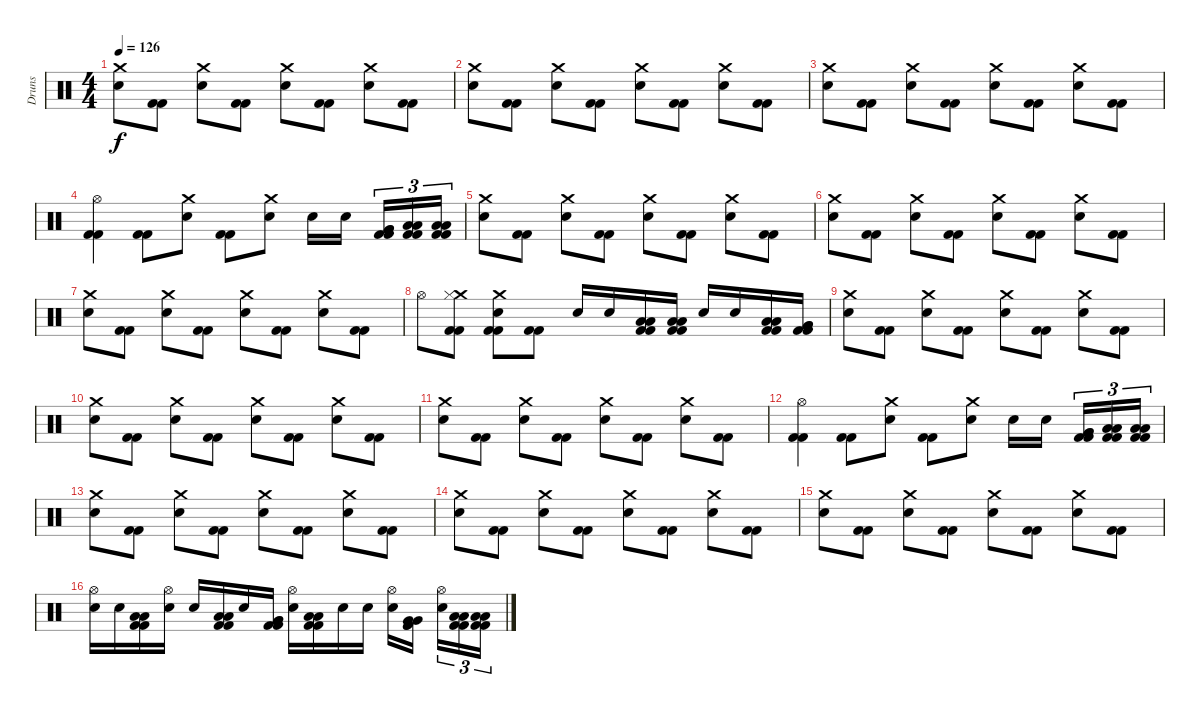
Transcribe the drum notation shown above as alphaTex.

\track ("Druns" "Druns") {instrument percussion}
\staff {score}
\articulation defaults
\ts (4 4)
\section ("" "")
\tempo 126
\clef neutral
\ks c
("Crash medium (hit)" "Electric Snare (hit)").8{dy f} ("Kick (hit) 2" "Kick (hit) 2").8 ("Crash medium (hit)" "Electric Snare (hit)").8 ("Kick (hit) 2" "Kick (hit) 2").8 ("Crash medium (hit)" "Electric Snare (hit)").8 ("Kick (hit) 2" "Kick (hit) 2").8 ("Crash medium (hit)" "Electric Snare (hit)").8 ("Kick (hit) 2" "Kick (hit) 2").8 |
("Crash medium (hit)" "Electric Snare (hit)").8 ("Kick (hit) 2" "Kick (hit) 2").8 ("Crash medium (hit)" "Electric Snare (hit)").8 ("Kick (hit) 2" "Kick (hit) 2").8 ("Crash medium (hit)" "Electric Snare (hit)").8 ("Kick (hit) 2" "Kick (hit) 2").8 ("Crash medium (hit)" "Electric Snare (hit)").8 ("Kick (hit) 2" "Kick (hit) 2").8 |
("Crash medium (hit)" "Electric Snare (hit)").8 ("Kick (hit) 2" "Kick (hit) 2").8 ("Crash medium (hit)" "Electric Snare (hit)").8 ("Kick (hit) 2" "Kick (hit) 2").8 ("Crash medium (hit)" "Electric Snare (hit)").8 ("Kick (hit) 2" "Kick (hit) 2").8 ("Crash medium (hit)" "Electric Snare (hit)").8 ("Kick (hit) 2" "Kick (hit) 2").8 |
("Hi-Hat (open)" "Kick (hit) 2" "Kick (hit) 2").4 ("Kick (hit) 2" "Kick (hit) 2").8 ("Crash medium (hit)" "Electric Snare (hit)").8 ("Kick (hit) 2" "Kick (hit) 2").8 ("Crash medium (hit)" "Electric Snare (hit)").8 "Electric Snare (hit)".16 "Electric Snare (hit)".16{beam splitsecondary} ("Very Low Tom (hit)" "Very Low Tom (hit)" "Kick (hit) 2" "Kick (hit) 2").16{tu (3 2)} ("Low Floor Tom (hit)" "Low Floor Tom (hit)" "Kick (hit) 2" "Kick (hit) 2").16{tu (3 2)} ("Low Floor Tom (hit)" "Low Floor Tom (hit)" "Kick (hit) 2" "Kick (hit) 2").16{tu (3 2)} |
("Crash medium (hit)" "Electric Snare (hit)").8 ("Kick (hit) 2" "Kick (hit) 2").8 ("Crash medium (hit)" "Electric Snare (hit)").8 ("Kick (hit) 2" "Kick (hit) 2").8 ("Crash medium (hit)" "Electric Snare (hit)").8 ("Kick (hit) 2" "Kick (hit) 2").8 ("Crash medium (hit)" "Electric Snare (hit)").8 ("Kick (hit) 2" "Kick (hit) 2").8 |
("Crash medium (hit)" "Electric Snare (hit)").8 ("Kick (hit) 2" "Kick (hit) 2").8 ("Crash medium (hit)" "Electric Snare (hit)").8 ("Kick (hit) 2" "Kick (hit) 2").8 ("Crash medium (hit)" "Electric Snare (hit)").8 ("Kick (hit) 2" "Kick (hit) 2").8 ("Crash medium (hit)" "Electric Snare (hit)").8 ("Kick (hit) 2" "Kick (hit) 2").8 |
("Crash medium (hit)" "Electric Snare (hit)").8 ("Kick (hit) 2" "Kick (hit) 2").8 ("Crash medium (hit)" "Electric Snare (hit)").8 ("Kick (hit) 2" "Kick (hit) 2").8 ("Crash medium (hit)" "Electric Snare (hit)").8 ("Kick (hit) 2" "Kick (hit) 2").8 ("Crash medium (hit)" "Electric Snare (hit)").8 ("Kick (hit) 2" "Kick (hit) 2").8 |
"Hi-Hat (open)".8 ("Crash medium (hit)" "Hi-Hat (closed)" "Kick (hit) 2" "Kick (hit) 2").8 ("Crash medium (hit)" "Electric Snare (hit)" "Kick (hit) 2" "Kick (hit) 2").8 ("Kick (hit) 2" "Kick (hit) 2").8 "Electric Snare (hit)".16 "Electric Snare (hit)".16 ("Low Tom (hit)" "Low Tom (hit)" "Kick (hit) 2" "Kick (hit) 2").16 ("Low Tom (hit)" "Low Tom (hit)" "Kick (hit) 2" "Kick (hit) 2").16 "Electric Snare (hit)".16 "Electric Snare (hit)".16 ("Low Tom (hit)" "Low Tom (hit)" "Kick (hit) 2" "Kick (hit) 2").16 ("Very Low Tom (hit)" "Very Low Tom (hit)" "Kick (hit) 2" "Kick (hit) 2").16 |
("Crash medium (hit)" "Electric Snare (hit)").8 ("Kick (hit) 2" "Kick (hit) 2").8 ("Crash medium (hit)" "Electric Snare (hit)").8 ("Kick (hit) 2" "Kick (hit) 2").8 ("Crash medium (hit)" "Electric Snare (hit)").8 ("Kick (hit) 2" "Kick (hit) 2").8 ("Crash medium (hit)" "Electric Snare (hit)").8 ("Kick (hit) 2" "Kick (hit) 2").8 |
("Crash medium (hit)" "Electric Snare (hit)").8 ("Kick (hit) 2" "Kick (hit) 2").8 ("Crash medium (hit)" "Electric Snare (hit)").8 ("Kick (hit) 2" "Kick (hit) 2").8 ("Crash medium (hit)" "Electric Snare (hit)").8 ("Kick (hit) 2" "Kick (hit) 2").8 ("Crash medium (hit)" "Electric Snare (hit)").8 ("Kick (hit) 2" "Kick (hit) 2").8 |
("Crash medium (hit)" "Electric Snare (hit)").8 ("Kick (hit) 2" "Kick (hit) 2").8 ("Crash medium (hit)" "Electric Snare (hit)").8 ("Kick (hit) 2" "Kick (hit) 2").8 ("Crash medium (hit)" "Electric Snare (hit)").8 ("Kick (hit) 2" "Kick (hit) 2").8 ("Crash medium (hit)" "Electric Snare (hit)").8 ("Kick (hit) 2" "Kick (hit) 2").8 |
("Hi-Hat (open)" "Kick (hit) 2" "Kick (hit) 2").4 ("Kick (hit) 2" "Kick (hit) 2").8 ("Crash medium (hit)" "Electric Snare (hit)").8 ("Kick (hit) 2" "Kick (hit) 2").8 ("Crash medium (hit)" "Electric Snare (hit)").8 "Electric Snare (hit)".16 "Electric Snare (hit)".16{beam splitsecondary} ("Very Low Tom (hit)" "Very Low Tom (hit)" "Kick (hit) 2" "Kick (hit) 2").16{tu (3 2)} ("Low Floor Tom (hit)" "Low Floor Tom (hit)" "Kick (hit) 2" "Kick (hit) 2").16{tu (3 2)} ("Low Floor Tom (hit)" "Low Floor Tom (hit)" "Kick (hit) 2" "Kick (hit) 2").16{tu (3 2)} |
("Crash medium (hit)" "Electric Snare (hit)").8 ("Kick (hit) 2" "Kick (hit) 2").8 ("Crash medium (hit)" "Electric Snare (hit)").8 ("Kick (hit) 2" "Kick (hit) 2").8 ("Crash medium (hit)" "Electric Snare (hit)").8 ("Kick (hit) 2" "Kick (hit) 2").8 ("Crash medium (hit)" "Electric Snare (hit)").8 ("Kick (hit) 2" "Kick (hit) 2").8 |
("Crash medium (hit)" "Electric Snare (hit)").8 ("Kick (hit) 2" "Kick (hit) 2").8 ("Crash medium (hit)" "Electric Snare (hit)").8 ("Kick (hit) 2" "Kick (hit) 2").8 ("Crash medium (hit)" "Electric Snare (hit)").8 ("Kick (hit) 2" "Kick (hit) 2").8 ("Crash medium (hit)" "Electric Snare (hit)").8 ("Kick (hit) 2" "Kick (hit) 2").8 |
("Crash medium (hit)" "Electric Snare (hit)").8 ("Kick (hit) 2" "Kick (hit) 2").8 ("Crash medium (hit)" "Electric Snare (hit)").8 ("Kick (hit) 2" "Kick (hit) 2").8 ("Crash medium (hit)" "Electric Snare (hit)").8 ("Kick (hit) 2" "Kick (hit) 2").8 ("Crash medium (hit)" "Electric Snare (hit)").8 ("Kick (hit) 2" "Kick (hit) 2").8 |
("Hi-Hat (open)" "Electric Snare (hit)").16 "Electric Snare (hit)".16 ("Low Tom (hit)" "Low Tom (hit)" "Kick (hit) 2" "Kick (hit) 2").16 ("Hi-Hat (open)" "Electric Snare (hit)").16 "Electric Snare (hit)".16 ("Low Tom (hit)" "Low Tom (hit)" "Kick (hit) 2" "Kick (hit) 2").16 "Electric Snare (hit)".16 ("Very Low Tom (hit)" "Very Low Tom (hit)" "Kick (hit) 2" "Kick (hit) 2").16 ("Hi-Hat (open)" "Electric Snare (hit)").16 ("Low Tom (hit)" "Low Tom (hit)" "Kick (hit) 2" "Kick (hit) 2").16 "Electric Snare (hit)".16 "Electric Snare (hit)".16 ("Hi-Hat (open)" "Electric Snare (hit)").16 ("Very Low Tom (hit)" "Very Low Tom (hit)" "Kick (hit) 2" "Kick (hit) 2").16{beam splitsecondary} ("Hi-Hat (open)" "Electric Snare (hit)").16{tu (3 2)} ("Low Floor Tom (hit)" "Low Floor Tom (hit)" "Kick (hit) 2" "Kick (hit) 2").16{tu (3 2)} ("Low Floor Tom (hit)" "Low Floor Tom (hit)" "Kick (hit) 2" "Kick (hit) 2").16{tu (3 2)}
